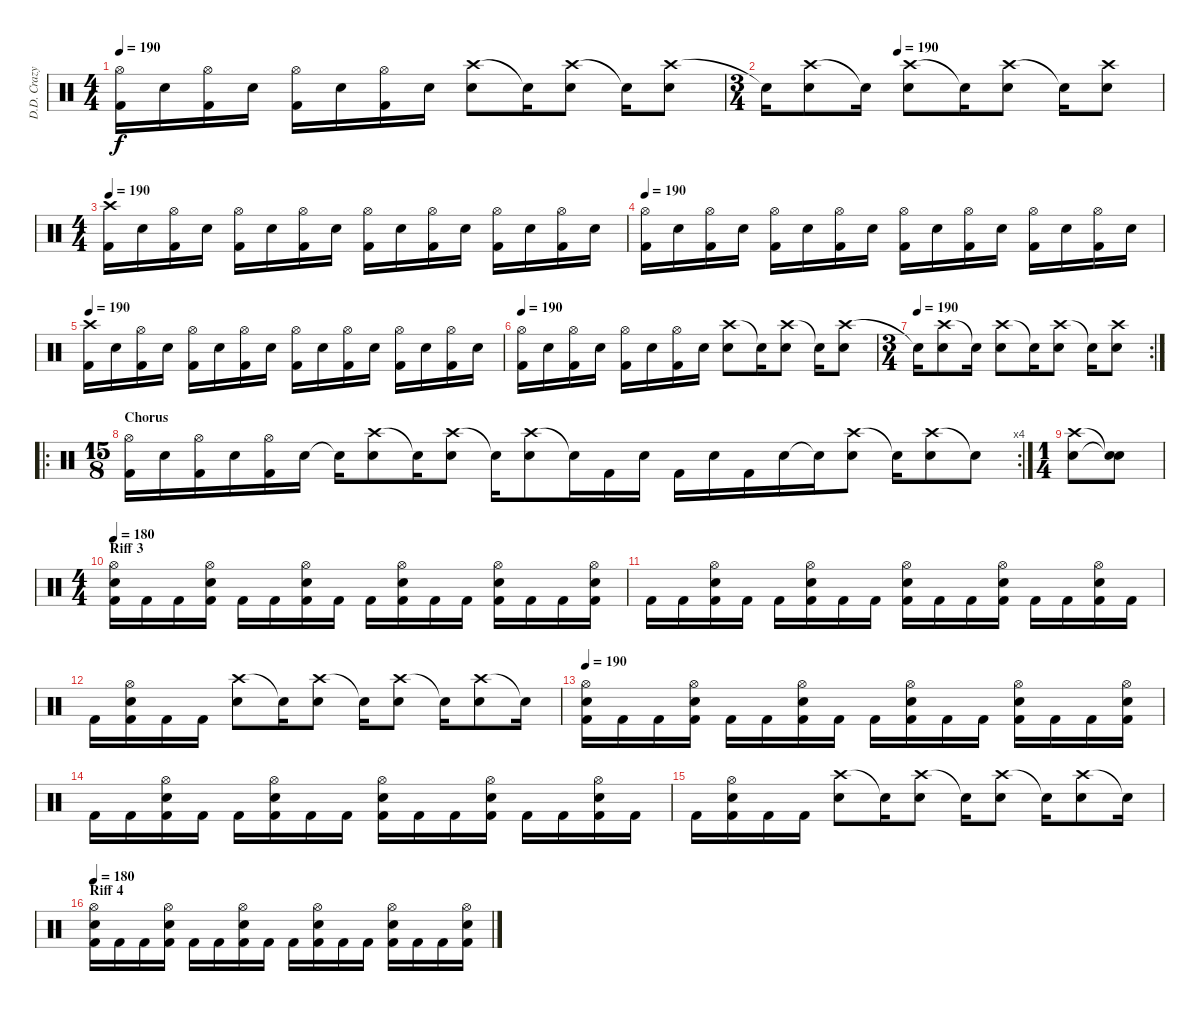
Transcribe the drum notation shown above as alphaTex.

\track ("D.D. Crazy" "D.D. Crazy") {instrument percussion}
\staff {score}
\articulation defaults
\ts (4 4)
\tempo 190
\clef neutral
\ks c
("Hi-Hat (open)" "Kick (hit) 2").16{dy f} "Snare (hit) 2".16 ("Hi-Hat (open)" "Kick (hit) 2").16 "Snare (hit) 2".16 ("Hi-Hat (open)" "Kick (hit) 2").16 "Snare (hit) 2".16 ("Hi-Hat (open)" "Kick (hit) 2").16 "Snare (hit) 2".16 ("Crash high (hit)" "Snare (hit) 2").8 "Snare (hit)"{t}.16 ("Crash high (hit)" "Snare (hit) 2").8 "Snare (hit)"{t}.16 ("Crash high (hit)" "Snare (hit) 2").8 |
\ts (3 4)
\tempo (190 0.3333333333333333)
"Snare (hit)"{t}.16 ("Crash high (hit)" "Snare (hit) 2").8 "Snare (hit)"{t}.16 ("Crash high (hit)" "Snare (hit) 2").8 "Snare (hit)"{t}.16 ("Crash high (hit)" "Snare (hit) 2").8 "Snare (hit)"{t}.16 ("Crash high (hit)" "Snare (hit) 2").8 |
\ts (4 4)
\tempo 190
("Crash high (hit)" "Kick (hit) 2").16 "Snare (hit) 2".16 ("Hi-Hat (open)" "Kick (hit) 2").16 "Snare (hit) 2".16 ("Hi-Hat (open)" "Kick (hit) 2").16 "Snare (hit) 2".16 ("Hi-Hat (open)" "Kick (hit) 2").16 "Snare (hit) 2".16 ("Hi-Hat (open)" "Kick (hit) 2").16 "Snare (hit) 2".16 ("Hi-Hat (open)" "Kick (hit) 2").16 "Snare (hit) 2".16 ("Hi-Hat (open)" "Kick (hit) 2").16 "Snare (hit) 2".16 ("Hi-Hat (open)" "Kick (hit) 2").16 "Snare (hit) 2".16 |
\tempo 190
("Hi-Hat (open)" "Kick (hit) 2").16 "Snare (hit) 2".16 ("Hi-Hat (open)" "Kick (hit) 2").16 "Snare (hit) 2".16 ("Hi-Hat (open)" "Kick (hit) 2").16 "Snare (hit) 2".16 ("Hi-Hat (open)" "Kick (hit) 2").16 "Snare (hit) 2".16 ("Hi-Hat (open)" "Kick (hit) 2").16 "Snare (hit) 2".16 ("Hi-Hat (open)" "Kick (hit) 2").16 "Snare (hit) 2".16 ("Hi-Hat (open)" "Kick (hit) 2").16 "Snare (hit) 2".16 ("Hi-Hat (open)" "Kick (hit) 2").16 "Snare (hit) 2".16 |
\tempo 190
("Crash high (hit)" "Kick (hit) 2").16 "Snare (hit) 2".16 ("Hi-Hat (open)" "Kick (hit) 2").16 "Snare (hit) 2".16 ("Hi-Hat (open)" "Kick (hit) 2").16 "Snare (hit) 2".16 ("Hi-Hat (open)" "Kick (hit) 2").16 "Snare (hit) 2".16 ("Hi-Hat (open)" "Kick (hit) 2").16 "Snare (hit) 2".16 ("Hi-Hat (open)" "Kick (hit) 2").16 "Snare (hit) 2".16 ("Hi-Hat (open)" "Kick (hit) 2").16 "Snare (hit) 2".16 ("Hi-Hat (open)" "Kick (hit) 2").16 "Snare (hit) 2".16 |
\tempo 190
("Hi-Hat (open)" "Kick (hit) 2").16 "Snare (hit) 2".16 ("Hi-Hat (open)" "Kick (hit) 2").16 "Snare (hit) 2".16 ("Hi-Hat (open)" "Kick (hit) 2").16 "Snare (hit) 2".16 ("Hi-Hat (open)" "Kick (hit) 2").16 "Snare (hit) 2".16 ("Crash high (hit)" "Snare (hit) 2").8 "Snare (hit)"{t}.16 ("Crash high (hit)" "Snare (hit) 2").8 "Snare (hit)"{t}.16 ("Crash high (hit)" "Snare (hit) 2").8 |
\rc 2
\ts (3 4)
\tempo (190)
"Snare (hit)"{t}.16 ("Crash high (hit)" "Snare (hit) 2").8 "Snare (hit)"{t}.16 ("Crash high (hit)" "Snare (hit) 2").8 "Snare (hit)"{t}.16 ("Crash high (hit)" "Snare (hit) 2").8 "Snare (hit)"{t}.16 ("Crash high (hit)" "Snare (hit) 2").8 |
\ro
\rc 4
\ts (15 8)
\section ("" "Chorus")
("Hi-Hat (open)" "Kick (hit) 2").16 "Snare (hit) 2".16 ("Hi-Hat (open)" "Kick (hit) 2").16 "Snare (hit) 2".16 ("Hi-Hat (open)" "Kick (hit) 2").16 "Snare (hit) 2".16 "Snare (hit)"{t}.16 ("Crash high (hit)" "Snare (hit) 2").8 "Snare (hit)"{t}.16 ("Crash high (hit)" "Snare (hit) 2").8 "Snare (hit)"{t}.16 ("Crash high (hit)" "Snare (hit) 2").8 "Snare (hit)"{t}.16 "Kick (hit) 2".16 "Snare (hit) 2".16 "Kick (hit) 2".16 "Snare (hit) 2".16 "Kick (hit) 2".16 "Snare (hit) 2".16 "Snare (hit)"{t}.16 ("Crash high (hit)" "Snare (hit) 2").8 "Snare (hit)"{t}.16 ("Crash high (hit)" "Snare (hit) 2").8 "Snare (hit)"{t}.8 |
\ts (1 4)
("Crash high (hit)" "Snare (hit) 2").8 ("Snare (hit)"{t} "Snare (hit)"{t}).8 |
\ts (4 4)
\section ("" "Riff 3")
\tempo 180
("Hi-Hat (open)" "Snare (hit) 2" "Kick (hit) 2").16 "Kick (hit) 2".16 "Kick (hit) 2".16 ("Hi-Hat (open)" "Snare (hit) 2" "Kick (hit) 2").16 "Kick (hit) 2".16 "Kick (hit) 2".16 ("Hi-Hat (open)" "Snare (hit) 2" "Kick (hit) 2").16 "Kick (hit) 2".16 "Kick (hit) 2".16 ("Hi-Hat (open)" "Snare (hit) 2" "Kick (hit) 2").16 "Kick (hit) 2".16 "Kick (hit) 2".16 ("Hi-Hat (open)" "Snare (hit) 2" "Kick (hit) 2").16 "Kick (hit) 2".16 "Kick (hit) 2".16 ("Hi-Hat (open)" "Snare (hit) 2" "Kick (hit) 2").16 |
"Kick (hit) 2".16 "Kick (hit) 2".16 ("Hi-Hat (open)" "Snare (hit) 2" "Kick (hit) 2").16 "Kick (hit) 2".16 "Kick (hit) 2".16 ("Hi-Hat (open)" "Snare (hit) 2" "Kick (hit) 2").16 "Kick (hit) 2".16 "Kick (hit) 2".16 ("Hi-Hat (open)" "Snare (hit) 2" "Kick (hit) 2").16 "Kick (hit) 2".16 "Kick (hit) 2".16 ("Hi-Hat (open)" "Snare (hit) 2" "Kick (hit) 2").16 "Kick (hit) 2".16 "Kick (hit) 2".16 ("Hi-Hat (open)" "Snare (hit) 2" "Kick (hit) 2").16 "Kick (hit) 2".16 |
"Kick (hit) 2".16 ("Hi-Hat (open)" "Snare (hit) 2" "Kick (hit) 2").16 "Kick (hit) 2".16 "Kick (hit) 2".16 ("Crash high (hit)" "Snare (hit) 2").8 "Snare (hit)"{t}.16 ("Crash high (hit)" "Snare (hit) 2").8 "Snare (hit)"{t}.16 ("Crash high (hit)" "Snare (hit) 2").8 "Snare (hit)"{t}.16 ("Crash high (hit)" "Snare (hit) 2").8 "Snare (hit)"{t}.16 |
\tempo 190
("Hi-Hat (open)" "Snare (hit) 2" "Kick (hit) 2").16 "Kick (hit) 2".16 "Kick (hit) 2".16 ("Hi-Hat (open)" "Snare (hit) 2" "Kick (hit) 2").16 "Kick (hit) 2".16 "Kick (hit) 2".16 ("Hi-Hat (open)" "Snare (hit) 2" "Kick (hit) 2").16 "Kick (hit) 2".16 "Kick (hit) 2".16 ("Hi-Hat (open)" "Snare (hit) 2" "Kick (hit) 2").16 "Kick (hit) 2".16 "Kick (hit) 2".16 ("Hi-Hat (open)" "Snare (hit) 2" "Kick (hit) 2").16 "Kick (hit) 2".16 "Kick (hit) 2".16 ("Hi-Hat (open)" "Snare (hit) 2" "Kick (hit) 2").16 |
"Kick (hit) 2".16 "Kick (hit) 2".16 ("Hi-Hat (open)" "Snare (hit) 2" "Kick (hit) 2").16 "Kick (hit) 2".16 "Kick (hit) 2".16 ("Hi-Hat (open)" "Snare (hit) 2" "Kick (hit) 2").16 "Kick (hit) 2".16 "Kick (hit) 2".16 ("Hi-Hat (open)" "Snare (hit) 2" "Kick (hit) 2").16 "Kick (hit) 2".16 "Kick (hit) 2".16 ("Hi-Hat (open)" "Snare (hit) 2" "Kick (hit) 2").16 "Kick (hit) 2".16 "Kick (hit) 2".16 ("Hi-Hat (open)" "Snare (hit) 2" "Kick (hit) 2").16 "Kick (hit) 2".16 |
"Kick (hit) 2".16 ("Hi-Hat (open)" "Snare (hit) 2" "Kick (hit) 2").16 "Kick (hit) 2".16 "Kick (hit) 2".16 ("Crash high (hit)" "Snare (hit) 2").8 "Snare (hit)"{t}.16 ("Crash high (hit)" "Snare (hit) 2").8 "Snare (hit)"{t}.16 ("Crash high (hit)" "Snare (hit) 2").8 "Snare (hit)"{t}.16 ("Crash high (hit)" "Snare (hit) 2").8 "Snare (hit)"{t}.16 |
\section ("" "Riff 4")
\tempo 180
("Hi-Hat (open)" "Snare (hit) 2" "Kick (hit) 2").16 "Kick (hit) 2".16 "Kick (hit) 2".16 ("Hi-Hat (open)" "Snare (hit) 2" "Kick (hit) 2").16 "Kick (hit) 2".16 "Kick (hit) 2".16 ("Hi-Hat (open)" "Snare (hit) 2" "Kick (hit) 2").16 "Kick (hit) 2".16 "Kick (hit) 2".16 ("Hi-Hat (open)" "Snare (hit) 2" "Kick (hit) 2").16 "Kick (hit) 2".16 "Kick (hit) 2".16 ("Hi-Hat (open)" "Snare (hit) 2" "Kick (hit) 2").16 "Kick (hit) 2".16 "Kick (hit) 2".16 ("Hi-Hat (open)" "Snare (hit) 2" "Kick (hit) 2").16
